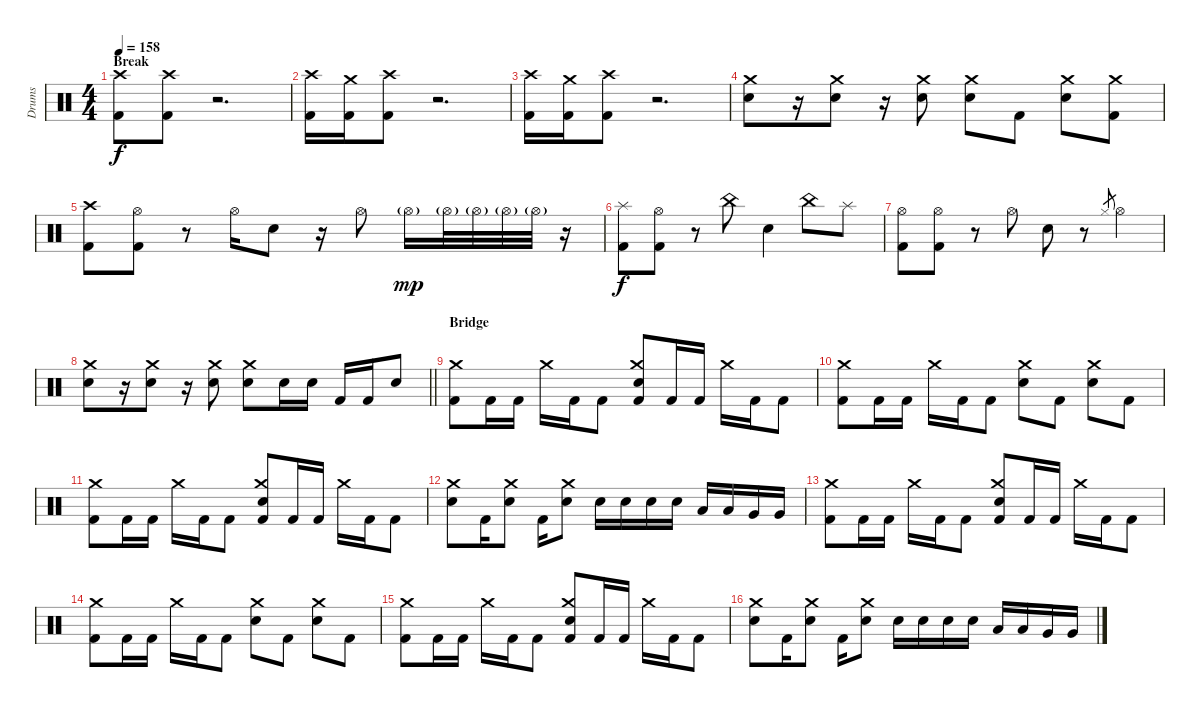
\track ("Drums" "Drums") {instrument percussion}
\staff {score}
\articulation defaults
\ts (4 4)
\section ("" "Break")
\tempo 158
\clef neutral
\ks c
("Crash high (hit)" "Kick (hit) 2").8{dy f} ("Crash high (hit)" "Kick (hit) 2").8 r.2{d} |
("Crash high (hit)" "Kick (hit) 2").16 ("Crash medium (hit)" "Kick (hit) 2").16 ("Crash high (hit)" "Kick (hit) 2").8 r.2{d} |
("Crash high (hit)" "Kick (hit) 2").16 ("Crash medium (hit)" "Kick (hit) 2").16 ("Crash high (hit)" "Kick (hit) 2").8 r.2{d} |
("Crash medium (hit)" "Snare (hit) 2").8 r.16 ("Crash medium (hit)" "Snare (hit) 2").8 r.16 ("Crash medium (hit)" "Snare (hit) 2").8 ("Crash medium (hit)" "Snare (hit) 2").8 "Kick (hit) 2".8 ("Crash medium (hit)" "Snare (hit) 2").8 ("Crash medium (hit)" "Kick (hit) 2").8 |
("Crash high (hit)" "Kick (hit) 2").8 ("Hi-Hat (open)" "Kick (hit) 2").8 r.8 "Hi-Hat (open)".16 "Snare (hit) 2".8 r.16 "Hi-Hat (open)".8 "Hi-Hat (open)"{g}.16{dy mp} "Hi-Hat (open)"{g}.32 "Hi-Hat (open)"{g}.32 "Hi-Hat (open)"{g}.32 "Hi-Hat (open)"{g}.32 r.16 |
("Splash (hit)" "Kick (hit) 2").8{dy f} ("Hi-Hat (open)" "Kick (hit) 2").8 r.8 "China (hit)".8 "Snare (hit) 2".4 "China (hit)".8 "Splash (hit)".8 |
("Hi-Hat (open)" "Kick (hit) 2").8 ("Hi-Hat (open)" "Kick (hit) 2").8 r.8 "Hi-Hat (open)".8 "Snare (hit) 2".8 r.8 "Hi-Hat (closed)".8{gr} "Hi-Hat (open)".4 |
\barLineRight lightlight
("Crash medium (hit)" "Snare (hit) 2").8 r.16 ("Crash medium (hit)" "Snare (hit) 2").8 r.16 ("Crash medium (hit)" "Snare (hit) 2").8 ("Crash medium (hit)" "Snare (hit) 2").8 "Snare (hit) 2".16 "Snare (hit) 2".16 "Kick (hit) 2".16 "Kick (hit) 2".16 "Snare (hit) 2".8 |
\section ("" "Bridge")
("Crash medium (hit)" "Kick (hit) 2").8 "Kick (hit) 2".16 "Kick (hit) 2".16 "Crash medium (hit)".16 "Kick (hit) 2".16 "Kick (hit) 2".8 ("Crash medium (hit)" "Snare (hit) 2" "Kick (hit) 2").8 "Kick (hit) 2".16 "Kick (hit) 2".16 "Crash medium (hit)".16 "Kick (hit) 2".16 "Kick (hit) 2".8 |
("Crash medium (hit)" "Kick (hit) 2").8 "Kick (hit) 2".16 "Kick (hit) 2".16 "Crash medium (hit)".16 "Kick (hit) 2".16 "Kick (hit) 2".8 ("Crash medium (hit)" "Snare (hit) 2").8 "Kick (hit) 2".8 ("Crash medium (hit)" "Snare (hit) 2").8 "Kick (hit) 2".8 |
("Crash medium (hit)" "Kick (hit) 2").8 "Kick (hit) 2".16 "Kick (hit) 2".16 "Crash medium (hit)".16 "Kick (hit) 2".16 "Kick (hit) 2".8 ("Crash medium (hit)" "Snare (hit) 2" "Kick (hit) 2").8 "Kick (hit) 2".16 "Kick (hit) 2".16 "Crash medium (hit)".16 "Kick (hit) 2".16 "Kick (hit) 2".8 |
("Crash medium (hit)" "Snare (hit) 2").8 "Kick (hit) 2".16 ("Crash medium (hit)" "Snare (hit) 2").8 "Kick (hit) 2".16 ("Crash medium (hit)" "Snare (hit) 2").8 "Snare (hit) 2".16 "Snare (hit) 2".16 "Snare (hit) 2".16 "Snare (hit) 2".16 "Low Tom (hit)".16 "Low Tom (hit)".16 "Very Low Tom (hit)".16 "Very Low Tom (hit)".16 |
("Crash medium (hit)" "Kick (hit) 2").8 "Kick (hit) 2".16 "Kick (hit) 2".16 "Crash medium (hit)".16 "Kick (hit) 2".16 "Kick (hit) 2".8 ("Crash medium (hit)" "Snare (hit) 2" "Kick (hit) 2").8 "Kick (hit) 2".16 "Kick (hit) 2".16 "Crash medium (hit)".16 "Kick (hit) 2".16 "Kick (hit) 2".8 |
("Crash medium (hit)" "Kick (hit) 2").8 "Kick (hit) 2".16 "Kick (hit) 2".16 "Crash medium (hit)".16 "Kick (hit) 2".16 "Kick (hit) 2".8 ("Crash medium (hit)" "Snare (hit) 2").8 "Kick (hit) 2".8 ("Crash medium (hit)" "Snare (hit) 2").8 "Kick (hit) 2".8 |
("Crash medium (hit)" "Kick (hit) 2").8 "Kick (hit) 2".16 "Kick (hit) 2".16 "Crash medium (hit)".16 "Kick (hit) 2".16 "Kick (hit) 2".8 ("Crash medium (hit)" "Snare (hit) 2" "Kick (hit) 2").8 "Kick (hit) 2".16 "Kick (hit) 2".16 "Crash medium (hit)".16 "Kick (hit) 2".16 "Kick (hit) 2".8 |
("Crash medium (hit)" "Snare (hit) 2").8 "Kick (hit) 2".16 ("Crash medium (hit)" "Snare (hit) 2").8 "Kick (hit) 2".16 ("Crash medium (hit)" "Snare (hit) 2").8 "Snare (hit) 2".16 "Snare (hit) 2".16 "Snare (hit) 2".16 "Snare (hit) 2".16 "Low Tom (hit)".16 "Low Tom (hit)".16 "Very Low Tom (hit)".16 "Very Low Tom (hit)".16
